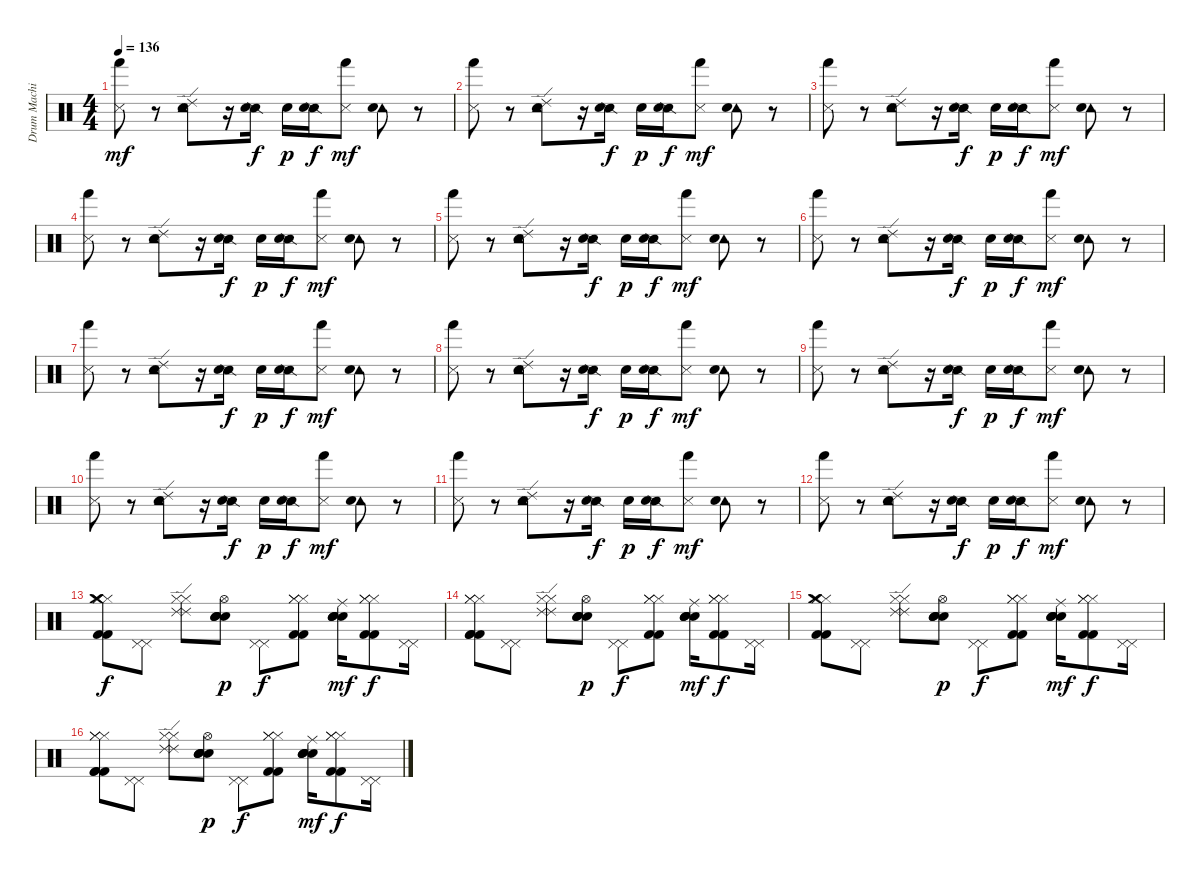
\track ("Drum Machine" "Drum Machi") {instrument percussion}
\staff {score}
\articulation defaults
\ts (4 4)
\tempo 136
\clef neutral
\ks c
("Hand (hit)" "Metronome (hit)").8{dy mf} r.8 ("Tambourine (hit)" "Metronome (bell)" "Ride (edge) 2").8 r.16 ("Snare (side stick) 2" "Snare (hit) 2").16{dy f} "Metronome (bell)".16{dy p} ("Snare (side stick) 2" "Snare (hit) 2").16{dy f} ("Metronome (hit)" "Hand (hit)").8{dy mf} ("Tambourine (hit)" "Metronome (bell)").8 r.8 |
("Hand (hit)" "Metronome (hit)").8 r.8 ("Tambourine (hit)" "Metronome (bell)" "Ride (edge) 2").8 r.16 ("Snare (side stick) 2" "Snare (hit) 2").16{dy f} "Metronome (bell)".16{dy p} ("Snare (side stick) 2" "Snare (hit) 2").16{dy f} ("Metronome (hit)" "Hand (hit)").8{dy mf} ("Tambourine (hit)" "Metronome (bell)").8 r.8 |
("Hand (hit)" "Metronome (hit)").8 r.8 ("Tambourine (hit)" "Metronome (bell)" "Ride (edge) 2").8 r.16 ("Snare (side stick) 2" "Snare (hit) 2").16{dy f} "Metronome (bell)".16{dy p} ("Snare (side stick) 2" "Snare (hit) 2").16{dy f} ("Metronome (hit)" "Hand (hit)").8{dy mf} ("Tambourine (hit)" "Metronome (bell)").8 r.8 |
("Hand (hit)" "Metronome (hit)").8 r.8 ("Tambourine (hit)" "Metronome (bell)" "Ride (edge) 2").8 r.16 ("Snare (side stick) 2" "Snare (hit) 2").16{dy f} "Metronome (bell)".16{dy p} ("Snare (side stick) 2" "Snare (hit) 2").16{dy f} ("Metronome (hit)" "Hand (hit)").8{dy mf} ("Tambourine (hit)" "Metronome (bell)").8 r.8 |
("Hand (hit)" "Metronome (hit)").8 r.8 ("Tambourine (hit)" "Metronome (bell)" "Ride (edge) 2").8 r.16 ("Snare (side stick) 2" "Snare (hit) 2").16{dy f} "Metronome (bell)".16{dy p} ("Snare (side stick) 2" "Snare (hit) 2").16{dy f} ("Metronome (hit)" "Hand (hit)").8{dy mf} ("Tambourine (hit)" "Metronome (bell)").8 r.8 |
("Hand (hit)" "Metronome (hit)").8 r.8 ("Tambourine (hit)" "Metronome (bell)" "Ride (edge) 2").8 r.16 ("Snare (side stick) 2" "Snare (hit) 2").16{dy f} "Metronome (bell)".16{dy p} ("Snare (side stick) 2" "Snare (hit) 2").16{dy f} ("Metronome (hit)" "Hand (hit)").8{dy mf} ("Tambourine (hit)" "Metronome (bell)").8 r.8 |
("Hand (hit)" "Metronome (hit)").8 r.8 ("Tambourine (hit)" "Metronome (bell)" "Ride (edge) 2").8 r.16 ("Snare (side stick) 2" "Snare (hit) 2").16{dy f} "Metronome (bell)".16{dy p} ("Snare (side stick) 2" "Snare (hit) 2").16{dy f} ("Metronome (hit)" "Hand (hit)").8{dy mf} ("Tambourine (hit)" "Metronome (bell)").8 r.8 |
("Hand (hit)" "Metronome (hit)").8 r.8 ("Tambourine (hit)" "Metronome (bell)" "Ride (edge) 2").8 r.16 ("Snare (side stick) 2" "Snare (hit) 2").16{dy f} "Metronome (bell)".16{dy p} ("Snare (side stick) 2" "Snare (hit) 2").16{dy f} ("Metronome (hit)" "Hand (hit)").8{dy mf} ("Tambourine (hit)" "Metronome (bell)").8 r.8 |
("Hand (hit)" "Metronome (hit)").8 r.8 ("Tambourine (hit)" "Metronome (bell)" "Ride (edge) 2").8 r.16 ("Snare (side stick) 2" "Snare (hit) 2").16{dy f} "Metronome (bell)".16{dy p} ("Snare (side stick) 2" "Snare (hit) 2").16{dy f} ("Metronome (hit)" "Hand (hit)").8{dy mf} ("Tambourine (hit)" "Metronome (bell)").8 r.8 |
("Hand (hit)" "Metronome (hit)").8 r.8 ("Tambourine (hit)" "Metronome (bell)" "Ride (edge) 2").8 r.16 ("Snare (side stick) 2" "Snare (hit) 2").16{dy f} "Metronome (bell)".16{dy p} ("Snare (side stick) 2" "Snare (hit) 2").16{dy f} ("Metronome (hit)" "Hand (hit)").8{dy mf} ("Tambourine (hit)" "Metronome (bell)").8 r.8 |
("Hand (hit)" "Metronome (hit)").8 r.8 ("Tambourine (hit)" "Metronome (bell)" "Ride (edge) 2").8 r.16 ("Snare (side stick) 2" "Snare (hit) 2").16{dy f} "Metronome (bell)".16{dy p} ("Snare (side stick) 2" "Snare (hit) 2").16{dy f} ("Metronome (hit)" "Hand (hit)").8{dy mf} ("Tambourine (hit)" "Metronome (bell)").8 r.8 |
("Hand (hit)" "Metronome (hit)").8 r.8 ("Tambourine (hit)" "Metronome (bell)" "Ride (edge) 2").8 r.16 ("Snare (side stick) 2" "Snare (hit) 2").16{dy f} "Metronome (bell)".16{dy p} ("Snare (side stick) 2" "Snare (hit) 2").16{dy f} ("Metronome (hit)" "Hand (hit)").8{dy mf} ("Tambourine (hit)" "Metronome (bell)").8 r.8 |
("Hi-Hat (closed)" "Kick (hit) 2" "Crash medium (hit)" "Kick (hit) 2" "Hi-Hat (closed)" "Hi-Hat (closed)").8{dy f} ("Pedal Hi-Hat (hit)" "Pedal Hi-Hat (hit)").8 ("Hi-Hat (closed)" "Hi-Hat (closed)" "Ride (edge) 2" "Ride (edge) 2").8 ("Electric Snare (hit)" "Snare (hit) 2" "Snare (hit) 2" "Hi-Hat (open)" "Electric Snare (hit)").8{dy p} ("Pedal Hi-Hat (hit)" "Pedal Hi-Hat (hit)").8{dy f} ("Hi-Hat (closed)" "Kick (hit) 2" "Hi-Hat (closed)" "Hi-Hat (closed)" "Kick (hit) 2").8 ("Ride (middle)" "Electric Snare (hit)" "Snare (hit) 2" "Snare (hit) 2" "Electric Snare (hit)").16{dy mf} ("Hi-Hat (closed)" "Kick (hit) 2" "Hi-Hat (closed)" "Hi-Hat (closed)" "Kick (hit) 2").8{dy f} ("Pedal Hi-Hat (hit)" "Pedal Hi-Hat (hit)").16 |
("Hi-Hat (closed)" "Kick (hit) 2" "Hi-Hat (closed)" "Kick (hit) 2" "Kick (hit) 2" "Hi-Hat (closed)").8 ("Pedal Hi-Hat (hit)" "Pedal Hi-Hat (hit)").8 ("Hi-Hat (closed)" "Hi-Hat (closed)" "Ride (edge) 2" "Ride (edge) 2").8 ("Electric Snare (hit)" "Snare (hit) 2" "Snare (hit) 2" "Hi-Hat (open)" "Electric Snare (hit)").8{dy p} ("Pedal Hi-Hat (hit)" "Pedal Hi-Hat (hit)").8{dy f} ("Hi-Hat (closed)" "Kick (hit) 2" "Hi-Hat (closed)" "Hi-Hat (closed)" "Kick (hit) 2").8 ("Ride (middle)" "Electric Snare (hit)" "Snare (hit) 2" "Snare (hit) 2" "Electric Snare (hit)").16{dy mf} ("Hi-Hat (closed)" "Kick (hit) 2" "Hi-Hat (closed)" "Hi-Hat (closed)" "Kick (hit) 2").8{dy f} ("Pedal Hi-Hat (hit)" "Pedal Hi-Hat (hit)").16 |
("Hi-Hat (closed)" "Kick (hit) 2" "Crash medium (hit)" "Kick (hit) 2" "Hi-Hat (closed)" "Hi-Hat (closed)").8 ("Pedal Hi-Hat (hit)" "Pedal Hi-Hat (hit)").8 ("Hi-Hat (closed)" "Hi-Hat (closed)" "Ride (edge) 2" "Ride (edge) 2").8 ("Electric Snare (hit)" "Snare (hit) 2" "Snare (hit) 2" "Hi-Hat (open)" "Electric Snare (hit)").8{dy p} ("Pedal Hi-Hat (hit)" "Pedal Hi-Hat (hit)").8{dy f} ("Hi-Hat (closed)" "Kick (hit) 2" "Hi-Hat (closed)" "Hi-Hat (closed)" "Kick (hit) 2").8 ("Ride (middle)" "Electric Snare (hit)" "Snare (hit) 2" "Snare (hit) 2" "Electric Snare (hit)").16{dy mf} ("Hi-Hat (closed)" "Kick (hit) 2" "Hi-Hat (closed)" "Hi-Hat (closed)" "Kick (hit) 2").8{dy f} ("Pedal Hi-Hat (hit)" "Pedal Hi-Hat (hit)").16 |
("Hi-Hat (closed)" "Kick (hit) 2" "Hi-Hat (closed)" "Kick (hit) 2" "Kick (hit) 2" "Hi-Hat (closed)").8 ("Pedal Hi-Hat (hit)" "Pedal Hi-Hat (hit)").8 ("Hi-Hat (closed)" "Hi-Hat (closed)" "Ride (edge) 2" "Ride (edge) 2").8 ("Electric Snare (hit)" "Snare (hit) 2" "Snare (hit) 2" "Hi-Hat (open)" "Electric Snare (hit)").8{dy p} ("Pedal Hi-Hat (hit)" "Pedal Hi-Hat (hit)").8{dy f} ("Hi-Hat (closed)" "Kick (hit) 2" "Hi-Hat (closed)" "Hi-Hat (closed)" "Kick (hit) 2").8 ("Ride (middle)" "Electric Snare (hit)" "Snare (hit) 2" "Snare (hit) 2" "Electric Snare (hit)").16{dy mf} ("Hi-Hat (closed)" "Kick (hit) 2" "Hi-Hat (closed)" "Hi-Hat (closed)" "Kick (hit) 2").8{dy f} ("Pedal Hi-Hat (hit)" "Pedal Hi-Hat (hit)").16
